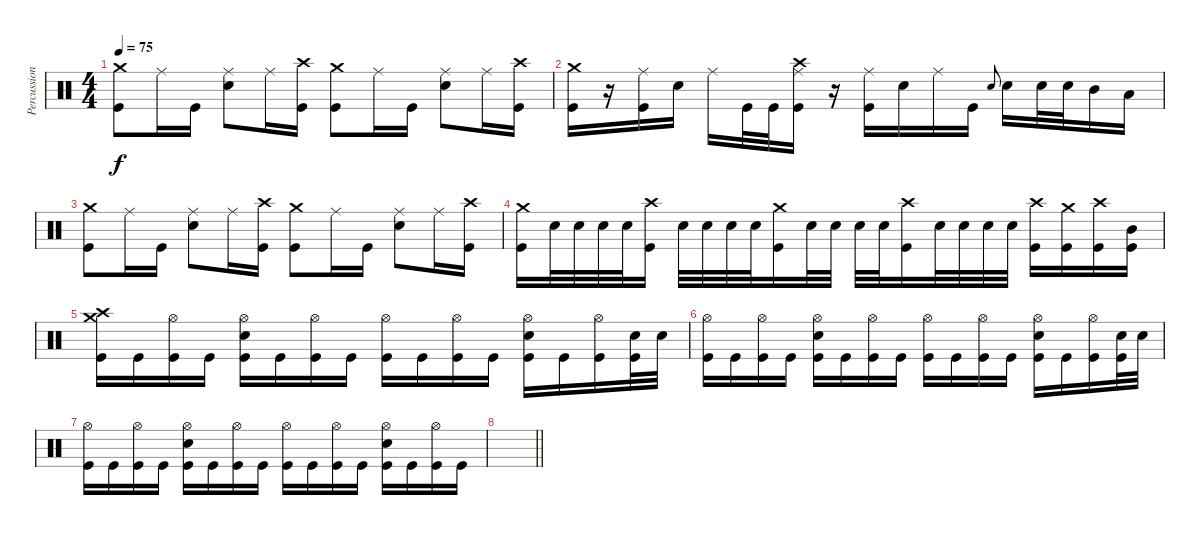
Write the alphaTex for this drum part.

\track ("Percussion" "Percussion") {instrument percussion}
\staff {score}
\articulation defaults
\ts (4 4)
\tempo 75
\clef neutral
\ks c
("Crash medium (hit)" "Kick (hit)").8{dy f} "Ride (middle)".16 "Kick (hit)".16 ("Ride (middle)" "Snare (hit) 2").8 "Ride (middle)".16 ("Crash high (hit)" "Kick (hit)").16 ("Crash medium (hit)" "Kick (hit)").8 "Ride (middle)".16 "Kick (hit)".16 ("Ride (middle)" "Snare (hit) 2").8 "Ride (middle)".16 ("Crash high (hit)" "Kick (hit)").16 |
("Crash medium (hit)" "Kick (hit)").16 r.16 ("Ride (middle)" "Kick (hit)").16 "Snare (hit) 2".16 "Ride (middle)".16 "Kick (hit)".32 "Kick (hit)".32 ("Crash high (hit)" "Ride (middle)" "Kick (hit)").16 r.16 ("Ride (middle)" "Kick (hit)").16 "Snare (hit) 2".16 "Ride (middle)".16 "Kick (hit)".16 "Snare (hit) 2".8{gr onbeat} "Snare (hit) 2".16 "Snare (hit) 2".32 "Snare (hit) 2".32 "Mid Tom (hit)".16 "Low Floor Tom (hit)".16 |
("Crash medium (hit)" "Kick (hit)").8 "Ride (middle)".16 "Kick (hit)".16 ("Ride (middle)" "Snare (hit) 2").8 "Ride (middle)".16 ("Crash high (hit)" "Kick (hit)").16 ("Crash medium (hit)" "Kick (hit)").8 "Ride (middle)".16 "Kick (hit)".16 ("Ride (middle)" "Snare (hit) 2").8 "Ride (middle)".16 ("Crash high (hit)" "Kick (hit)").16 |
("Crash medium (hit)" "Kick (hit)").16 "Snare (hit) 2".32 "Snare (hit) 2".32 "Snare (hit) 2".32 "Snare (hit) 2".32 ("Crash high (hit)" "Kick (hit)").16 "Snare (hit) 2".32 "Snare (hit) 2".32 "Snare (hit) 2".32 "Snare (hit) 2".32 ("Crash medium (hit)" "Kick (hit)").16 "Snare (hit) 2".32 "Snare (hit) 2".32 "Snare (hit) 2".32 "Snare (hit) 2".32 ("Crash high (hit)" "Kick (hit)").16 "Snare (hit) 2".32 "Snare (hit) 2".32 "Snare (hit) 2".32 "Snare (hit) 2".32 ("Crash high (hit)" "Kick (hit)").16 ("Crash medium (hit)" "Kick (hit)").16 ("Crash high (hit)" "Kick (hit)").16 ("Mid Tom (hit)" "Kick (hit)").16 |
("Crash high (hit)" "Crash medium (hit)" "Kick (hit)").16 "Kick (hit)".16 ("Hi-Hat (open)" "Kick (hit)").16 "Kick (hit)".16 ("Hi-Hat (open)" "Snare (hit) 2" "Kick (hit)").16 "Kick (hit)".16 ("Hi-Hat (open)" "Kick (hit)").16 "Kick (hit)".16 ("Hi-Hat (open)" "Kick (hit)").16 "Kick (hit)".16 ("Hi-Hat (open)" "Kick (hit)").16 "Kick (hit)".16 ("Hi-Hat (open)" "Snare (hit) 2" "Kick (hit)").16 "Kick (hit)".16 ("Hi-Hat (open)" "Kick (hit)").16 ("Snare (hit) 2" "Kick (hit)").32 "Snare (hit) 2".32 |
("Hi-Hat (open)" "Kick (hit)").16 "Kick (hit)".16 ("Hi-Hat (open)" "Kick (hit)").16 "Kick (hit)".16 ("Hi-Hat (open)" "Snare (hit) 2" "Kick (hit)").16 "Kick (hit)".16 ("Hi-Hat (open)" "Kick (hit)").16 "Kick (hit)".16 ("Hi-Hat (open)" "Kick (hit)").16 "Kick (hit)".16 ("Hi-Hat (open)" "Kick (hit)").16 "Kick (hit)".16 ("Hi-Hat (open)" "Snare (hit) 2" "Kick (hit)").16 "Kick (hit)".16 ("Hi-Hat (open)" "Kick (hit)").16 ("Snare (hit) 2" "Kick (hit)").32 "Snare (hit) 2".32 |
("Hi-Hat (open)" "Kick (hit)").16 "Kick (hit)".16 ("Hi-Hat (open)" "Kick (hit)").16 "Kick (hit)".16 ("Hi-Hat (open)" "Snare (hit) 2" "Kick (hit)").16 "Kick (hit)".16 ("Hi-Hat (open)" "Kick (hit)").16 "Kick (hit)".16 ("Hi-Hat (open)" "Kick (hit)").16 "Kick (hit)".16 ("Hi-Hat (open)" "Kick (hit)").16 "Kick (hit)".16 ("Hi-Hat (open)" "Snare (hit) 2" "Kick (hit)").16 "Kick (hit)".16 ("Hi-Hat (open)" "Kick (hit)").16 "Kick (hit)".16 |
\barLineRight lightlight
